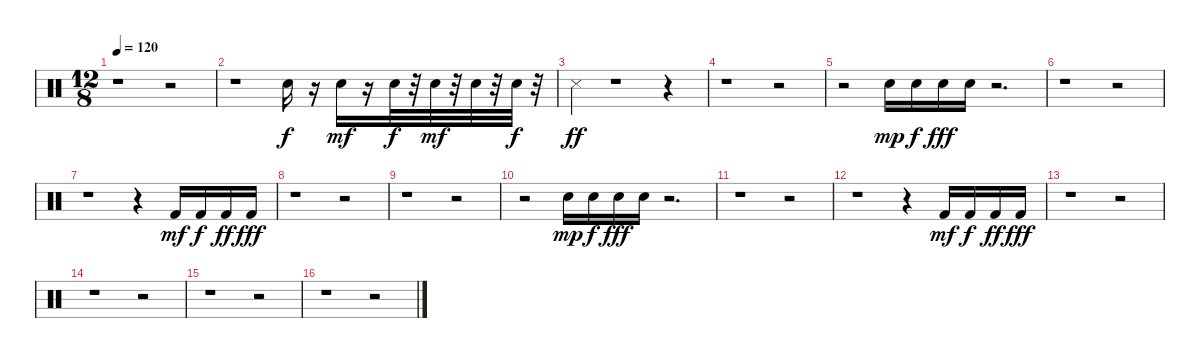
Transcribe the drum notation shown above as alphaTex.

\track "" {instrument percussion}
\staff {score}
\articulation defaults
\ts (12 8)
\tempo 120
\clef neutral
\ks c
r.1{dy fff} r.2 |
r.1 "Electric Snare (hit)".16{dy f} r.16 "Snare (hit) 2".16{dy mf} r.16 "Electric Snare (hit)".32{dy f} r.32 "Electric Snare (hit)".32{dy mf} r.32 "Snare (hit) 2".32 r.32 "Snare (hit) 2".32{dy f} r.32 |
"Metronome (hit)".4{dy ff} r.1 r.4 |
r.1 r.2 |
r.2 "Metronome (bell)".16{dy mp} "Metronome (bell)".16{dy f} "Metronome (bell)".16{dy fff} "Metronome (bell)".16 r.2{d} |
r.1 r.2 |
r.1 r.4 "Kick (hit) 2".16{dy mf} "Kick (hit) 2".16{dy f} "Kick (hit) 2".16{dy ff} "Kick (hit) 2".16{dy fff} |
r.1 r.2 |
r.1 r.2 |
r.2 "Metronome (bell)".16{dy mp} "Metronome (bell)".16{dy f} "Metronome (bell)".16{dy fff} "Metronome (bell)".16 r.2{d} |
r.1 r.2 |
r.1 r.4 "Kick (hit) 2".16{dy mf} "Kick (hit) 2".16{dy f} "Kick (hit) 2".16{dy ff} "Kick (hit) 2".16{dy fff} |
r.1 r.2 |
r.1 r.2 |
r.1 r.2 |
r.1 r.2
